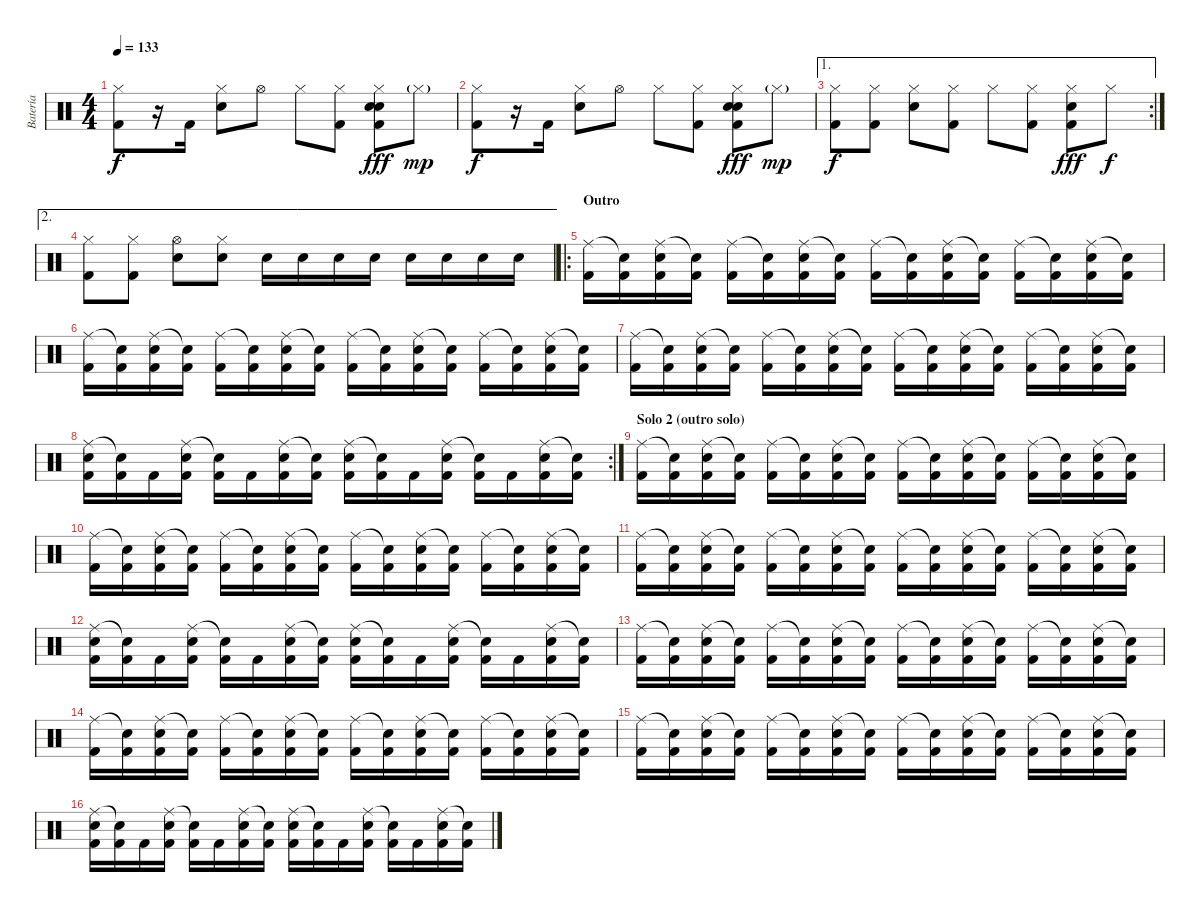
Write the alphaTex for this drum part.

\track ("Batería" "Batería") {instrument percussion}
\staff {score}
\articulation defaults
\ts (4 4)
\tempo 133
\clef neutral
\ks c
("Hi-Hat (closed)" "Kick (hit) 2").8{dy f} r.16 "Kick (hit) 2".16 ("Hi-Hat (closed)" "Snare (hit) 2").8 "Hi-Hat (open)".8 "Hi-Hat (closed)".8 ("Hi-Hat (closed)" "Kick (hit) 2").8 ("Hi-Hat (closed)" "Snare (hit) 2" "Snare (hit) 2" "Kick (hit) 2").8{dy fff} "Hi-Hat (closed)"{g}.8{dy mp} |
("Hi-Hat (closed)" "Kick (hit) 2").8{dy f} r.16 "Kick (hit) 2".16 ("Hi-Hat (closed)" "Snare (hit) 2").8 "Hi-Hat (open)".8 "Hi-Hat (closed)".8 ("Hi-Hat (closed)" "Kick (hit) 2").8 ("Hi-Hat (closed)" "Snare (hit) 2" "Snare (hit) 2" "Kick (hit) 2").8{dy fff} "Hi-Hat (closed)"{g}.8{dy mp} |
\ae 1
\rc 2
("Hi-Hat (closed)" "Kick (hit) 2").8{dy f} ("Hi-Hat (closed)" "Kick (hit) 2").8 ("Hi-Hat (closed)" "Snare (hit) 2").8 ("Hi-Hat (closed)" "Kick (hit) 2").8 "Hi-Hat (closed)".8 ("Hi-Hat (closed)" "Kick (hit) 2").8 ("Hi-Hat (closed)" "Snare (hit) 2" "Kick (hit) 2").8{dy fff} "Hi-Hat (closed)".8{dy f} |
\ae 2
("Hi-Hat (closed)" "Kick (hit) 2").8 ("Hi-Hat (closed)" "Kick (hit) 2").8 ("Hi-Hat (open)" "Snare (hit) 2").8 ("Hi-Hat (closed)" "Snare (hit) 2").8 "Snare (hit) 2".16 "Snare (hit) 2".16 "Snare (hit) 2".16 "Snare (hit) 2".16 "Snare (hit) 2".16 "Snare (hit) 2".16 "Snare (hit) 2".16 "Snare (hit) 2".16 |
\ro
\section ("" "Outro")
("Ride (middle)" "Kick (hit) 2").16 ("Snare (hit)"{t} "Kick (hit) 2").16 ("Ride (middle)" "Snare (hit) 2" "Kick (hit) 2").16 ("Snare (hit)"{t} "Kick (hit) 2").16 ("Ride (middle)" "Kick (hit) 2").16 ("Snare (hit)"{t} "Kick (hit) 2").16 ("Ride (middle)" "Snare (hit) 2" "Kick (hit) 2").16 ("Snare (hit)"{t} "Kick (hit) 2").16 ("Ride (middle)" "Kick (hit) 2").16 ("Snare (hit)"{t} "Kick (hit) 2").16 ("Ride (middle)" "Snare (hit) 2" "Kick (hit) 2").16 ("Snare (hit)"{t} "Kick (hit) 2").16 ("Ride (middle)" "Kick (hit) 2").16 ("Snare (hit)"{t} "Kick (hit) 2").16 ("Ride (middle)" "Snare (hit) 2" "Kick (hit) 2").16 ("Snare (hit)"{t} "Kick (hit) 2").16 |
("Ride (middle)" "Kick (hit) 2").16 ("Snare (hit)"{t} "Kick (hit) 2").16 ("Ride (middle)" "Snare (hit) 2" "Kick (hit) 2").16 ("Snare (hit)"{t} "Kick (hit) 2").16 ("Ride (middle)" "Kick (hit) 2").16 ("Snare (hit)"{t} "Kick (hit) 2").16 ("Ride (middle)" "Snare (hit) 2" "Kick (hit) 2").16 ("Snare (hit)"{t} "Kick (hit) 2").16 ("Ride (middle)" "Kick (hit) 2").16 ("Snare (hit)"{t} "Kick (hit) 2").16 ("Ride (middle)" "Snare (hit) 2" "Kick (hit) 2").16 ("Snare (hit)"{t} "Kick (hit) 2").16 ("Ride (middle)" "Kick (hit) 2").16 ("Snare (hit)"{t} "Kick (hit) 2").16 ("Ride (middle)" "Snare (hit) 2" "Kick (hit) 2").16 ("Snare (hit)"{t} "Kick (hit) 2").16 |
("Ride (middle)" "Kick (hit) 2").16 ("Snare (hit)"{t} "Kick (hit) 2").16 ("Ride (middle)" "Snare (hit) 2" "Kick (hit) 2").16 ("Snare (hit)"{t} "Kick (hit) 2").16 ("Ride (middle)" "Kick (hit) 2").16 ("Snare (hit)"{t} "Kick (hit) 2").16 ("Ride (middle)" "Snare (hit) 2" "Kick (hit) 2").16 ("Snare (hit)"{t} "Kick (hit) 2").16 ("Ride (middle)" "Kick (hit) 2").16 ("Snare (hit)"{t} "Kick (hit) 2").16 ("Ride (middle)" "Snare (hit) 2" "Kick (hit) 2").16 ("Snare (hit)"{t} "Kick (hit) 2").16 ("Ride (middle)" "Kick (hit) 2").16 ("Snare (hit)"{t} "Kick (hit) 2").16 ("Ride (middle)" "Snare (hit) 2" "Kick (hit) 2").16 ("Snare (hit)"{t} "Kick (hit) 2").16 |
\rc 2
("Ride (middle)" "Snare (hit) 2" "Kick (hit) 2").16 ("Snare (hit)"{t} "Kick (hit) 2").16 "Kick (hit) 2".16 ("Ride (middle)" "Snare (hit) 2" "Kick (hit) 2").16 ("Snare (hit)"{t} "Kick (hit) 2").16 "Kick (hit) 2".16 ("Ride (middle)" "Snare (hit) 2" "Kick (hit) 2").16 ("Snare (hit)"{t} "Kick (hit) 2").16 ("Ride (middle)" "Snare (hit) 2" "Kick (hit) 2").16 ("Snare (hit)"{t} "Kick (hit) 2").16 "Kick (hit) 2".16 ("Ride (middle)" "Snare (hit) 2" "Kick (hit) 2").16 ("Snare (hit)"{t} "Kick (hit) 2").16 "Kick (hit) 2".16 ("Ride (middle)" "Snare (hit) 2" "Kick (hit) 2").16 ("Snare (hit)"{t} "Kick (hit) 2").16 |
\section ("" "Solo 2 (outro solo)")
("Ride (middle)" "Kick (hit) 2").16 ("Snare (hit)"{t} "Kick (hit) 2").16 ("Ride (middle)" "Snare (hit) 2" "Kick (hit) 2").16 ("Snare (hit)"{t} "Kick (hit) 2").16 ("Ride (middle)" "Kick (hit) 2").16 ("Snare (hit)"{t} "Kick (hit) 2").16 ("Ride (middle)" "Snare (hit) 2" "Kick (hit) 2").16 ("Snare (hit)"{t} "Kick (hit) 2").16 ("Ride (middle)" "Kick (hit) 2").16 ("Snare (hit)"{t} "Kick (hit) 2").16 ("Ride (middle)" "Snare (hit) 2" "Kick (hit) 2").16 ("Snare (hit)"{t} "Kick (hit) 2").16 ("Ride (middle)" "Kick (hit) 2").16 ("Snare (hit)"{t} "Kick (hit) 2").16 ("Ride (middle)" "Snare (hit) 2" "Kick (hit) 2").16 ("Snare (hit)"{t} "Kick (hit) 2").16 |
("Ride (middle)" "Kick (hit) 2").16 ("Snare (hit)"{t} "Kick (hit) 2").16 ("Ride (middle)" "Snare (hit) 2" "Kick (hit) 2").16 ("Snare (hit)"{t} "Kick (hit) 2").16 ("Ride (middle)" "Kick (hit) 2").16 ("Snare (hit)"{t} "Kick (hit) 2").16 ("Ride (middle)" "Snare (hit) 2" "Kick (hit) 2").16 ("Snare (hit)"{t} "Kick (hit) 2").16 ("Ride (middle)" "Kick (hit) 2").16 ("Snare (hit)"{t} "Kick (hit) 2").16 ("Ride (middle)" "Snare (hit) 2" "Kick (hit) 2").16 ("Snare (hit)"{t} "Kick (hit) 2").16 ("Ride (middle)" "Kick (hit) 2").16 ("Snare (hit)"{t} "Kick (hit) 2").16 ("Ride (middle)" "Snare (hit) 2" "Kick (hit) 2").16 ("Snare (hit)"{t} "Kick (hit) 2").16 |
("Ride (middle)" "Kick (hit) 2").16 ("Snare (hit)"{t} "Kick (hit) 2").16 ("Ride (middle)" "Snare (hit) 2" "Kick (hit) 2").16 ("Snare (hit)"{t} "Kick (hit) 2").16 ("Ride (middle)" "Kick (hit) 2").16 ("Snare (hit)"{t} "Kick (hit) 2").16 ("Ride (middle)" "Snare (hit) 2" "Kick (hit) 2").16 ("Snare (hit)"{t} "Kick (hit) 2").16 ("Ride (middle)" "Kick (hit) 2").16 ("Snare (hit)"{t} "Kick (hit) 2").16 ("Ride (middle)" "Snare (hit) 2" "Kick (hit) 2").16 ("Snare (hit)"{t} "Kick (hit) 2").16 ("Ride (middle)" "Kick (hit) 2").16 ("Snare (hit)"{t} "Kick (hit) 2").16 ("Ride (middle)" "Snare (hit) 2" "Kick (hit) 2").16 ("Snare (hit)"{t} "Kick (hit) 2").16 |
("Ride (middle)" "Snare (hit) 2" "Kick (hit) 2").16 ("Snare (hit)"{t} "Kick (hit) 2").16 "Kick (hit) 2".16 ("Ride (middle)" "Snare (hit) 2" "Kick (hit) 2").16 ("Snare (hit)"{t} "Kick (hit) 2").16 "Kick (hit) 2".16 ("Ride (middle)" "Snare (hit) 2" "Kick (hit) 2").16 ("Snare (hit)"{t} "Kick (hit) 2").16 ("Ride (middle)" "Snare (hit) 2" "Kick (hit) 2").16 ("Snare (hit)"{t} "Kick (hit) 2").16 "Kick (hit) 2".16 ("Ride (middle)" "Snare (hit) 2" "Kick (hit) 2").16 ("Snare (hit)"{t} "Kick (hit) 2").16 "Kick (hit) 2".16 ("Ride (middle)" "Snare (hit) 2" "Kick (hit) 2").16 ("Snare (hit)"{t} "Kick (hit) 2").16 |
("Ride (middle)" "Kick (hit) 2").16 ("Snare (hit)"{t} "Kick (hit) 2").16 ("Ride (middle)" "Snare (hit) 2" "Kick (hit) 2").16 ("Snare (hit)"{t} "Kick (hit) 2").16 ("Ride (middle)" "Kick (hit) 2").16 ("Snare (hit)"{t} "Kick (hit) 2").16 ("Ride (middle)" "Snare (hit) 2" "Kick (hit) 2").16 ("Snare (hit)"{t} "Kick (hit) 2").16 ("Ride (middle)" "Kick (hit) 2").16 ("Snare (hit)"{t} "Kick (hit) 2").16 ("Ride (middle)" "Snare (hit) 2" "Kick (hit) 2").16 ("Snare (hit)"{t} "Kick (hit) 2").16 ("Ride (middle)" "Kick (hit) 2").16 ("Snare (hit)"{t} "Kick (hit) 2").16 ("Ride (middle)" "Snare (hit) 2" "Kick (hit) 2").16 ("Snare (hit)"{t} "Kick (hit) 2").16 |
("Ride (middle)" "Kick (hit) 2").16 ("Snare (hit)"{t} "Kick (hit) 2").16 ("Ride (middle)" "Snare (hit) 2" "Kick (hit) 2").16 ("Snare (hit)"{t} "Kick (hit) 2").16 ("Ride (middle)" "Kick (hit) 2").16 ("Snare (hit)"{t} "Kick (hit) 2").16 ("Ride (middle)" "Snare (hit) 2" "Kick (hit) 2").16 ("Snare (hit)"{t} "Kick (hit) 2").16 ("Ride (middle)" "Kick (hit) 2").16 ("Snare (hit)"{t} "Kick (hit) 2").16 ("Ride (middle)" "Snare (hit) 2" "Kick (hit) 2").16 ("Snare (hit)"{t} "Kick (hit) 2").16 ("Ride (middle)" "Kick (hit) 2").16 ("Snare (hit)"{t} "Kick (hit) 2").16 ("Ride (middle)" "Snare (hit) 2" "Kick (hit) 2").16 ("Snare (hit)"{t} "Kick (hit) 2").16 |
("Ride (middle)" "Kick (hit) 2").16{volume 0} ("Snare (hit)"{t} "Kick (hit) 2").16 ("Ride (middle)" "Snare (hit) 2" "Kick (hit) 2").16 ("Snare (hit)"{t} "Kick (hit) 2").16 ("Ride (middle)" "Kick (hit) 2").16 ("Snare (hit)"{t} "Kick (hit) 2").16 ("Ride (middle)" "Snare (hit) 2" "Kick (hit) 2").16 ("Snare (hit)"{t} "Kick (hit) 2").16 ("Ride (middle)" "Kick (hit) 2").16 ("Snare (hit)"{t} "Kick (hit) 2").16 ("Ride (middle)" "Snare (hit) 2" "Kick (hit) 2").16 ("Snare (hit)"{t} "Kick (hit) 2").16 ("Ride (middle)" "Kick (hit) 2").16 ("Snare (hit)"{t} "Kick (hit) 2").16 ("Ride (middle)" "Snare (hit) 2" "Kick (hit) 2").16 ("Snare (hit)"{t} "Kick (hit) 2").16 |
("Ride (middle)" "Snare (hit) 2" "Kick (hit) 2").16 ("Snare (hit)"{t} "Kick (hit) 2").16 "Kick (hit) 2".16 ("Ride (middle)" "Snare (hit) 2" "Kick (hit) 2").16 ("Snare (hit)"{t} "Kick (hit) 2").16 "Kick (hit) 2".16 ("Ride (middle)" "Snare (hit) 2" "Kick (hit) 2").16 ("Snare (hit)"{t} "Kick (hit) 2").16 ("Ride (middle)" "Snare (hit) 2" "Kick (hit) 2").16 ("Snare (hit)"{t} "Kick (hit) 2").16 "Kick (hit) 2".16 ("Ride (middle)" "Snare (hit) 2" "Kick (hit) 2").16 ("Snare (hit)"{t} "Kick (hit) 2").16 "Kick (hit) 2".16 ("Ride (middle)" "Snare (hit) 2" "Kick (hit) 2").16 ("Snare (hit)"{t} "Kick (hit) 2").16
